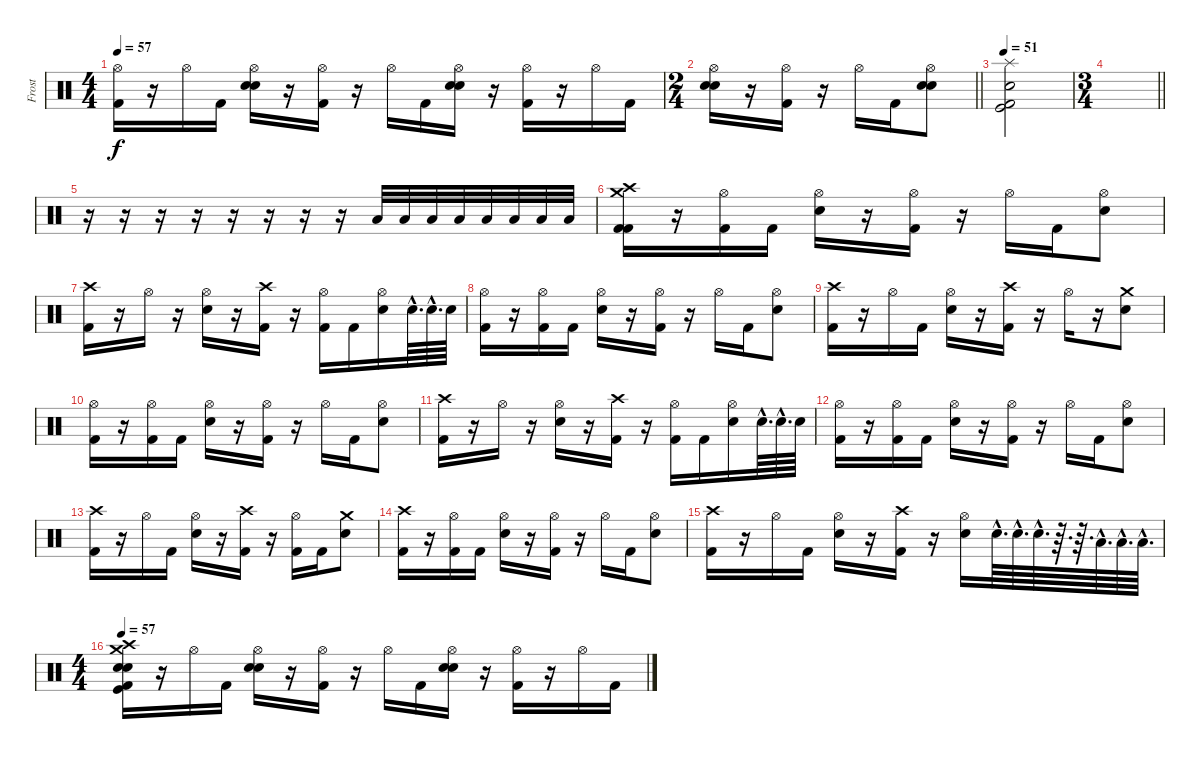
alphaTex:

\track ("Frost" "Frost") {instrument percussion}
\staff {score}
\articulation defaults
\ts (4 4)
\tempo 57
\clef neutral
\ks c
("Kick (hit) 2" "Hi-Hat (open)").16{dy f} r.16 "Hi-Hat (open)".16 "Kick (hit) 2".16 ("Electric Snare (hit)" "Electric Snare (hit)" "Hi-Hat (open)").16 r.16 ("Kick (hit) 2" "Hi-Hat (open)").16 r.16 "Hi-Hat (open)".16 "Kick (hit) 2".16 ("Electric Snare (hit)" "Electric Snare (hit)" "Hi-Hat (open)").16 r.16 ("Kick (hit) 2" "Hi-Hat (open)").16 r.16 "Hi-Hat (open)".16 "Kick (hit) 2".16 |
\ts (2 4)
\barLineRight lightlight
("Electric Snare (hit)" "Electric Snare (hit)" "Hi-Hat (open)").16 r.16 ("Kick (hit) 2" "Hi-Hat (open)").16 r.16 "Hi-Hat (open)".16 "Kick (hit) 2".16 ("Electric Snare (hit)" "Electric Snare (hit)" "Hi-Hat (open)").8 |
\tempo 51
("Kick (hit) 2" "Kick (hit)" "Electric Snare (hit)" "Splash (hit)").2 |
\ts (3 4)
\barLineRight lightlight
|
r.16 r.16 r.16 r.16 r.16 r.16 r.16 r.16 "Low Tom (hit)".32 "Low Tom (hit)".32 "Low Tom (hit)".32 "Low Tom (hit)".32 "Low Floor Tom (hit)".32 "Low Floor Tom (hit)".32 "Low Floor Tom (hit)".32 "Low Floor Tom (hit)".32 |
("Kick (hit) 2" "Kick (hit) 2" "Crash high (hit)" "Crash medium (hit)").16 r.16 ("Kick (hit) 2" "Hi-Hat (open)").16 "Kick (hit) 2".16 ("Electric Snare (hit)" "Hi-Hat (open)").16 r.16 ("Kick (hit) 2" "Hi-Hat (open)").16 r.16 "Hi-Hat (open)".16 "Kick (hit) 2".16 ("Electric Snare (hit)" "Hi-Hat (open)").8 |
("Kick (hit) 2" "Crash high (hit)").16 r.16 "Hi-Hat (open)".16 r.16 ("Electric Snare (hit)" "Hi-Hat (open)").16 r.16 ("Kick (hit) 2" "Crash high (hit)").16 r.16 ("Kick (hit) 2" "Hi-Hat (open)").16 "Kick (hit) 2".16 ("Electric Snare (hit)" "Hi-Hat (open)").16 "Electric Snare (hit)"{hac}.64{d} "Electric Snare (hit)"{hac}.64{d} "Electric Snare (hit)".64 |
("Kick (hit) 2" "Hi-Hat (open)").16 r.16 ("Kick (hit) 2" "Hi-Hat (open)").16 "Kick (hit) 2".16 ("Electric Snare (hit)" "Hi-Hat (open)").16 r.16 ("Kick (hit) 2" "Hi-Hat (open)").16 r.16 "Hi-Hat (open)".16 "Kick (hit) 2".16 ("Electric Snare (hit)" "Hi-Hat (open)").8 |
("Kick (hit) 2" "Crash high (hit)").16 r.16 "Hi-Hat (open)".16 "Kick (hit) 2".16 ("Electric Snare (hit)" "Hi-Hat (open)").16 r.16 ("Kick (hit) 2" "Crash high (hit)").16 r.16 "Hi-Hat (open)".16 r.16 ("Electric Snare (hit)" "Crash medium (hit)").8 |
("Kick (hit) 2" "Hi-Hat (open)").16 r.16 ("Kick (hit) 2" "Hi-Hat (open)").16 "Kick (hit) 2".16 ("Electric Snare (hit)" "Hi-Hat (open)").16 r.16 ("Kick (hit) 2" "Hi-Hat (open)").16 r.16 "Hi-Hat (open)".16 "Kick (hit) 2".16 ("Electric Snare (hit)" "Hi-Hat (open)").8 |
("Kick (hit) 2" "Crash high (hit)").16 r.16 "Hi-Hat (open)".16 r.16 ("Electric Snare (hit)" "Hi-Hat (open)").16 r.16 ("Kick (hit) 2" "Crash high (hit)").16 r.16 ("Kick (hit) 2" "Hi-Hat (open)").16 "Kick (hit) 2".16 ("Electric Snare (hit)" "Hi-Hat (open)").16 "Electric Snare (hit)"{hac}.64{d} "Electric Snare (hit)"{hac}.64{d} "Electric Snare (hit)".64 |
("Kick (hit) 2" "Hi-Hat (open)").16 r.16 ("Kick (hit) 2" "Hi-Hat (open)").16 "Kick (hit) 2".16 ("Electric Snare (hit)" "Hi-Hat (open)").16 r.16 ("Kick (hit) 2" "Hi-Hat (open)").16 r.16 "Hi-Hat (open)".16 "Kick (hit) 2".16 ("Electric Snare (hit)" "Hi-Hat (open)").8 |
("Kick (hit) 2" "Crash high (hit)").16 r.16 "Hi-Hat (open)".16 "Kick (hit) 2".16 ("Electric Snare (hit)" "Hi-Hat (open)").16 r.16 ("Kick (hit) 2" "Crash high (hit)").16 r.16 ("Kick (hit) 2" "Hi-Hat (open)").16 "Kick (hit) 2".16 ("Electric Snare (hit)" "Crash medium (hit)").8 |
("Kick (hit) 2" "Crash high (hit)").16 r.16 ("Kick (hit) 2" "Hi-Hat (open)").16 "Kick (hit) 2".16 ("Electric Snare (hit)" "Hi-Hat (open)").16 r.16 ("Kick (hit) 2" "Hi-Hat (open)").16 r.16 "Hi-Hat (open)".16 "Kick (hit) 2".16 ("Electric Snare (hit)" "Hi-Hat (open)").8 |
("Kick (hit) 2" "Crash high (hit)").16 r.16 "Hi-Hat (open)".16 "Kick (hit) 2".16 ("Electric Snare (hit)" "Hi-Hat (open)").16 r.16 ("Kick (hit) 2" "Crash high (hit)").16 r.16 ("Electric Snare (hit)" "Hi-Hat (open)").16 "Electric Snare (hit)"{hac}.64{d} "Electric Snare (hit)"{hac}.64{d} "Electric Snare (hit)"{hac}.64{d} r.64{d} r.64{d} "Low Floor Tom (hit)"{hac}.64{d} "Low Floor Tom (hit)"{hac}.64{d} "Low Floor Tom (hit)"{hac}.64{d} |
\ts (4 4)
\tempo 57
("Kick (hit) 2" "Kick (hit)" "Crash high (hit)" "Crash medium (hit)" "Electric Snare (hit)" "Electric Snare (hit)").16 r.16 "Hi-Hat (open)".16 "Kick (hit) 2".16 ("Electric Snare (hit)" "Electric Snare (hit)" "Hi-Hat (open)").16 r.16 ("Kick (hit) 2" "Hi-Hat (open)").16 r.16 "Hi-Hat (open)".16 "Kick (hit) 2".16 ("Electric Snare (hit)" "Electric Snare (hit)" "Hi-Hat (open)").16 r.16 ("Kick (hit) 2" "Hi-Hat (open)").16 r.16 "Hi-Hat (open)".16 "Kick (hit) 2".16
